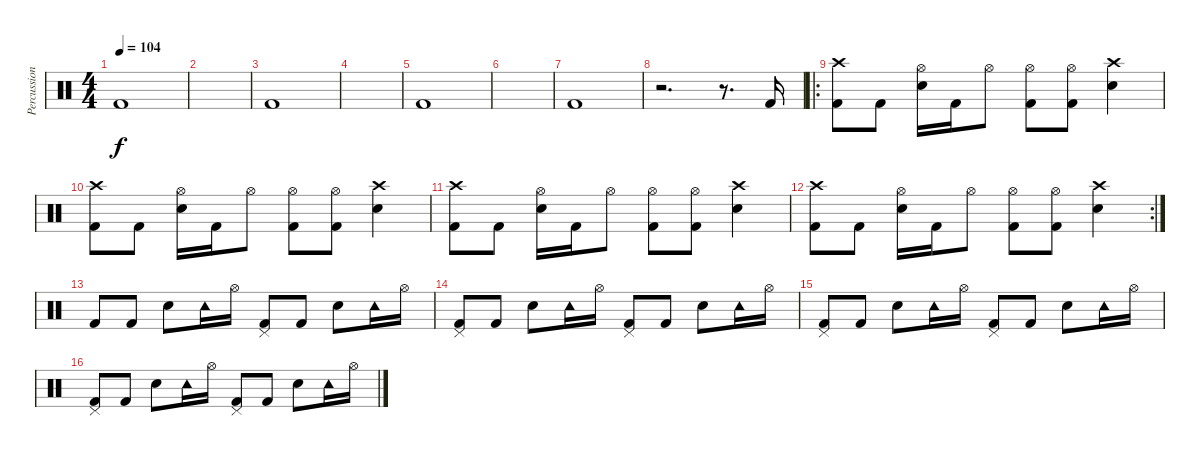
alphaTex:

\track ("Percussions" "Percussion") {instrument percussion}
\staff {score}
\articulation defaults
\ts (4 4)
\tempo 104
\clef neutral
\ks c "Kick (hit) 2".1{dy f}
|
|
"Kick (hit) 2".1 |
|
"Kick (hit) 2".1 |
|
"Kick (hit) 2".1 |
r.2{d} r.8{d} "Kick (hit) 2".16 |
\ro
("Crash high (hit)" "Kick (hit) 2").8 "Kick (hit) 2".8 ("Hi-Hat (open)" "Snare (hit) 2").16 "Kick (hit) 2".16 "Hi-Hat (open)".8 ("Hi-Hat (open)" "Kick (hit) 2").8 ("Hi-Hat (open)" "Kick (hit) 2").8 ("Crash high (hit)" "Snare (hit) 2").4 |
("Crash high (hit)" "Kick (hit) 2").8 "Kick (hit) 2".8 ("Hi-Hat (open)" "Snare (hit) 2").16 "Kick (hit) 2".16 "Hi-Hat (open)".8 ("Hi-Hat (open)" "Kick (hit) 2").8 ("Hi-Hat (open)" "Kick (hit) 2").8 ("Crash high (hit)" "Snare (hit) 2").4 |
("Crash high (hit)" "Kick (hit) 2").8 "Kick (hit) 2".8 ("Hi-Hat (open)" "Snare (hit) 2").16 "Kick (hit) 2".16 "Hi-Hat (open)".8 ("Hi-Hat (open)" "Kick (hit) 2").8 ("Hi-Hat (open)" "Kick (hit) 2").8 ("Crash high (hit)" "Snare (hit) 2").4 |
\rc 2
("Crash high (hit)" "Kick (hit) 2").8 "Kick (hit) 2".8 ("Hi-Hat (open)" "Snare (hit) 2").16 "Kick (hit) 2".16 "Hi-Hat (open)".8 ("Hi-Hat (open)" "Kick (hit) 2").8 ("Hi-Hat (open)" "Kick (hit) 2").8 ("Crash high (hit)" "Snare (hit) 2").4 |
"Kick (hit) 2".8 "Kick (hit) 2".8 "Snare (hit) 2".8 "Tambourine (hit)".16 "Hi-Hat (open)".16 ("Pedal Hi-Hat (hit)" "Kick (hit) 2").8 "Kick (hit) 2".8 "Snare (hit) 2".8 "Tambourine (hit)".16 "Hi-Hat (open)".16 |
("Pedal Hi-Hat (hit)" "Kick (hit) 2").8 "Kick (hit) 2".8 "Snare (hit) 2".8 "Tambourine (hit)".16 "Hi-Hat (open)".16 ("Pedal Hi-Hat (hit)" "Kick (hit) 2").8 "Kick (hit) 2".8 "Snare (hit) 2".8 "Tambourine (hit)".16 "Hi-Hat (open)".16 |
("Pedal Hi-Hat (hit)" "Kick (hit) 2").8 "Kick (hit) 2".8 "Snare (hit) 2".8 "Tambourine (hit)".16 "Hi-Hat (open)".16 ("Pedal Hi-Hat (hit)" "Kick (hit) 2").8 "Kick (hit) 2".8 "Snare (hit) 2".8 "Tambourine (hit)".16 "Hi-Hat (open)".16 |
("Pedal Hi-Hat (hit)" "Kick (hit) 2").8 "Kick (hit) 2".8 "Snare (hit) 2".8 "Tambourine (hit)".16 "Hi-Hat (open)".16 ("Pedal Hi-Hat (hit)" "Kick (hit) 2").8 "Kick (hit) 2".8 "Snare (hit) 2".8 "Tambourine (hit)".16 "Hi-Hat (open)".16
